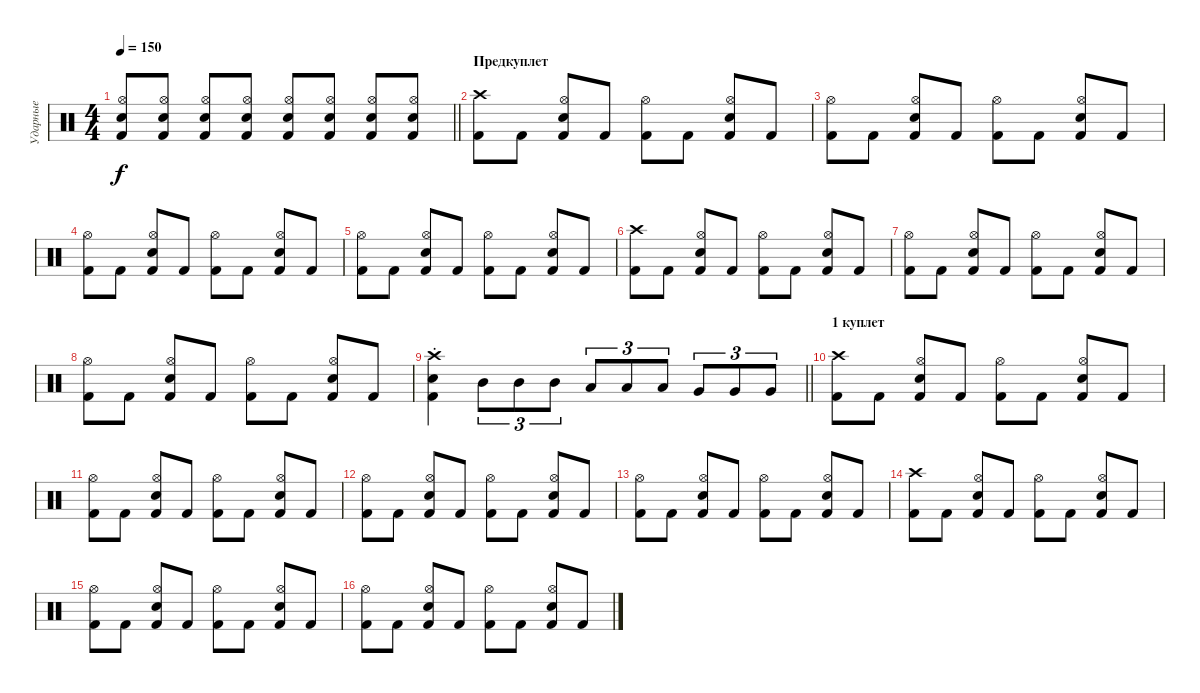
\track ("Ударные" "Ударные") {instrument percussion}
\staff {score}
\articulation defaults
\ts (4 4)
\tempo 150
\clef neutral
\barLineRight lightlight
\ks c
("Snare (hit) 2" "Hi-Hat (open)" "Kick (hit) 2").8{dy f} ("Snare (hit) 2" "Hi-Hat (open)" "Kick (hit) 2").8 ("Snare (hit) 2" "Hi-Hat (open)" "Kick (hit) 2").8 ("Snare (hit) 2" "Hi-Hat (open)" "Kick (hit) 2").8 ("Snare (hit) 2" "Hi-Hat (open)" "Kick (hit) 2").8 ("Snare (hit) 2" "Hi-Hat (open)" "Kick (hit) 2").8 ("Snare (hit) 2" "Hi-Hat (open)" "Kick (hit) 2").8 ("Snare (hit) 2" "Hi-Hat (open)" "Kick (hit) 2").8 |
\section ("" "Предкуплет")
("Kick (hit) 2" "Crash high (hit)").8 "Kick (hit) 2".8 ("Snare (hit) 2" "Kick (hit) 2" "Hi-Hat (open)").8 "Kick (hit) 2".8 ("Kick (hit) 2" "Hi-Hat (open)").8 "Kick (hit) 2".8 ("Snare (hit) 2" "Kick (hit) 2" "Hi-Hat (open)").8 "Kick (hit) 2".8 |
("Kick (hit) 2" "Hi-Hat (open)").8 "Kick (hit) 2".8 ("Snare (hit) 2" "Kick (hit) 2" "Hi-Hat (open)").8 "Kick (hit) 2".8 ("Kick (hit) 2" "Hi-Hat (open)").8 "Kick (hit) 2".8 ("Snare (hit) 2" "Kick (hit) 2" "Hi-Hat (open)").8 "Kick (hit) 2".8 |
("Kick (hit) 2" "Hi-Hat (open)").8 "Kick (hit) 2".8 ("Snare (hit) 2" "Kick (hit) 2" "Hi-Hat (open)").8 "Kick (hit) 2".8 ("Kick (hit) 2" "Hi-Hat (open)").8 "Kick (hit) 2".8 ("Snare (hit) 2" "Kick (hit) 2" "Hi-Hat (open)").8 "Kick (hit) 2".8 |
("Kick (hit) 2" "Hi-Hat (open)").8 "Kick (hit) 2".8 ("Snare (hit) 2" "Kick (hit) 2" "Hi-Hat (open)").8 "Kick (hit) 2".8 ("Kick (hit) 2" "Hi-Hat (open)").8 "Kick (hit) 2".8 ("Snare (hit) 2" "Kick (hit) 2" "Hi-Hat (open)").8 "Kick (hit) 2".8 |
("Kick (hit) 2" "Crash high (hit)").8 "Kick (hit) 2".8 ("Snare (hit) 2" "Kick (hit) 2" "Hi-Hat (open)").8 "Kick (hit) 2".8 ("Kick (hit) 2" "Hi-Hat (open)").8 "Kick (hit) 2".8 ("Snare (hit) 2" "Kick (hit) 2" "Hi-Hat (open)").8 "Kick (hit) 2".8 |
("Kick (hit) 2" "Hi-Hat (open)").8 "Kick (hit) 2".8 ("Snare (hit) 2" "Kick (hit) 2" "Hi-Hat (open)").8 "Kick (hit) 2".8 ("Kick (hit) 2" "Hi-Hat (open)").8 "Kick (hit) 2".8 ("Snare (hit) 2" "Kick (hit) 2" "Hi-Hat (open)").8 "Kick (hit) 2".8 |
("Kick (hit) 2" "Hi-Hat (open)").8 "Kick (hit) 2".8 ("Snare (hit) 2" "Kick (hit) 2" "Hi-Hat (open)").8 "Kick (hit) 2".8 ("Kick (hit) 2" "Hi-Hat (open)").8 "Kick (hit) 2".8 ("Snare (hit) 2" "Kick (hit) 2" "Hi-Hat (open)").8 "Kick (hit) 2".8 |
\barLineRight lightlight
("Kick (hit) 2"{st} "Snare (hit) 2"{st} "Crash high (hit)"{st}).4 "Mid Tom (hit)".8{tu (3 2)} "Mid Tom (hit)".8{tu (3 2)} "Mid Tom (hit)".8{tu (3 2)} "Low Tom (hit)".8{tu (3 2)} "Low Tom (hit)".8{tu (3 2)} "Low Tom (hit)".8{tu (3 2)} "Very Low Tom (hit)".8{tu (3 2)} "Very Low Tom (hit)".8{tu (3 2)} "Very Low Tom (hit)".8{tu (3 2)} |
\section ("" "1 куплет")
("Kick (hit) 2" "Crash high (hit)").8 "Kick (hit) 2".8 ("Snare (hit) 2" "Kick (hit) 2" "Hi-Hat (open)").8 "Kick (hit) 2".8 ("Kick (hit) 2" "Hi-Hat (open)").8 "Kick (hit) 2".8 ("Snare (hit) 2" "Kick (hit) 2" "Hi-Hat (open)").8 "Kick (hit) 2".8 |
("Kick (hit) 2" "Hi-Hat (open)").8 "Kick (hit) 2".8 ("Snare (hit) 2" "Kick (hit) 2" "Hi-Hat (open)").8 "Kick (hit) 2".8 ("Kick (hit) 2" "Hi-Hat (open)").8 "Kick (hit) 2".8 ("Snare (hit) 2" "Kick (hit) 2" "Hi-Hat (open)").8 "Kick (hit) 2".8 |
("Kick (hit) 2" "Hi-Hat (open)").8 "Kick (hit) 2".8 ("Snare (hit) 2" "Kick (hit) 2" "Hi-Hat (open)").8 "Kick (hit) 2".8 ("Kick (hit) 2" "Hi-Hat (open)").8 "Kick (hit) 2".8 ("Snare (hit) 2" "Kick (hit) 2" "Hi-Hat (open)").8 "Kick (hit) 2".8 |
("Kick (hit) 2" "Hi-Hat (open)").8 "Kick (hit) 2".8 ("Snare (hit) 2" "Kick (hit) 2" "Hi-Hat (open)").8 "Kick (hit) 2".8 ("Kick (hit) 2" "Hi-Hat (open)").8 "Kick (hit) 2".8 ("Snare (hit) 2" "Kick (hit) 2" "Hi-Hat (open)").8 "Kick (hit) 2".8 |
("Kick (hit) 2" "Crash high (hit)").8 "Kick (hit) 2".8 ("Snare (hit) 2" "Kick (hit) 2" "Hi-Hat (open)").8 "Kick (hit) 2".8 ("Kick (hit) 2" "Hi-Hat (open)").8 "Kick (hit) 2".8 ("Snare (hit) 2" "Kick (hit) 2" "Hi-Hat (open)").8 "Kick (hit) 2".8 |
("Kick (hit) 2" "Hi-Hat (open)").8 "Kick (hit) 2".8 ("Snare (hit) 2" "Kick (hit) 2" "Hi-Hat (open)").8 "Kick (hit) 2".8 ("Kick (hit) 2" "Hi-Hat (open)").8 "Kick (hit) 2".8 ("Snare (hit) 2" "Kick (hit) 2" "Hi-Hat (open)").8 "Kick (hit) 2".8 |
("Kick (hit) 2" "Hi-Hat (open)").8 "Kick (hit) 2".8 ("Snare (hit) 2" "Kick (hit) 2" "Hi-Hat (open)").8 "Kick (hit) 2".8 ("Kick (hit) 2" "Hi-Hat (open)").8 "Kick (hit) 2".8 ("Snare (hit) 2" "Kick (hit) 2" "Hi-Hat (open)").8 "Kick (hit) 2".8
